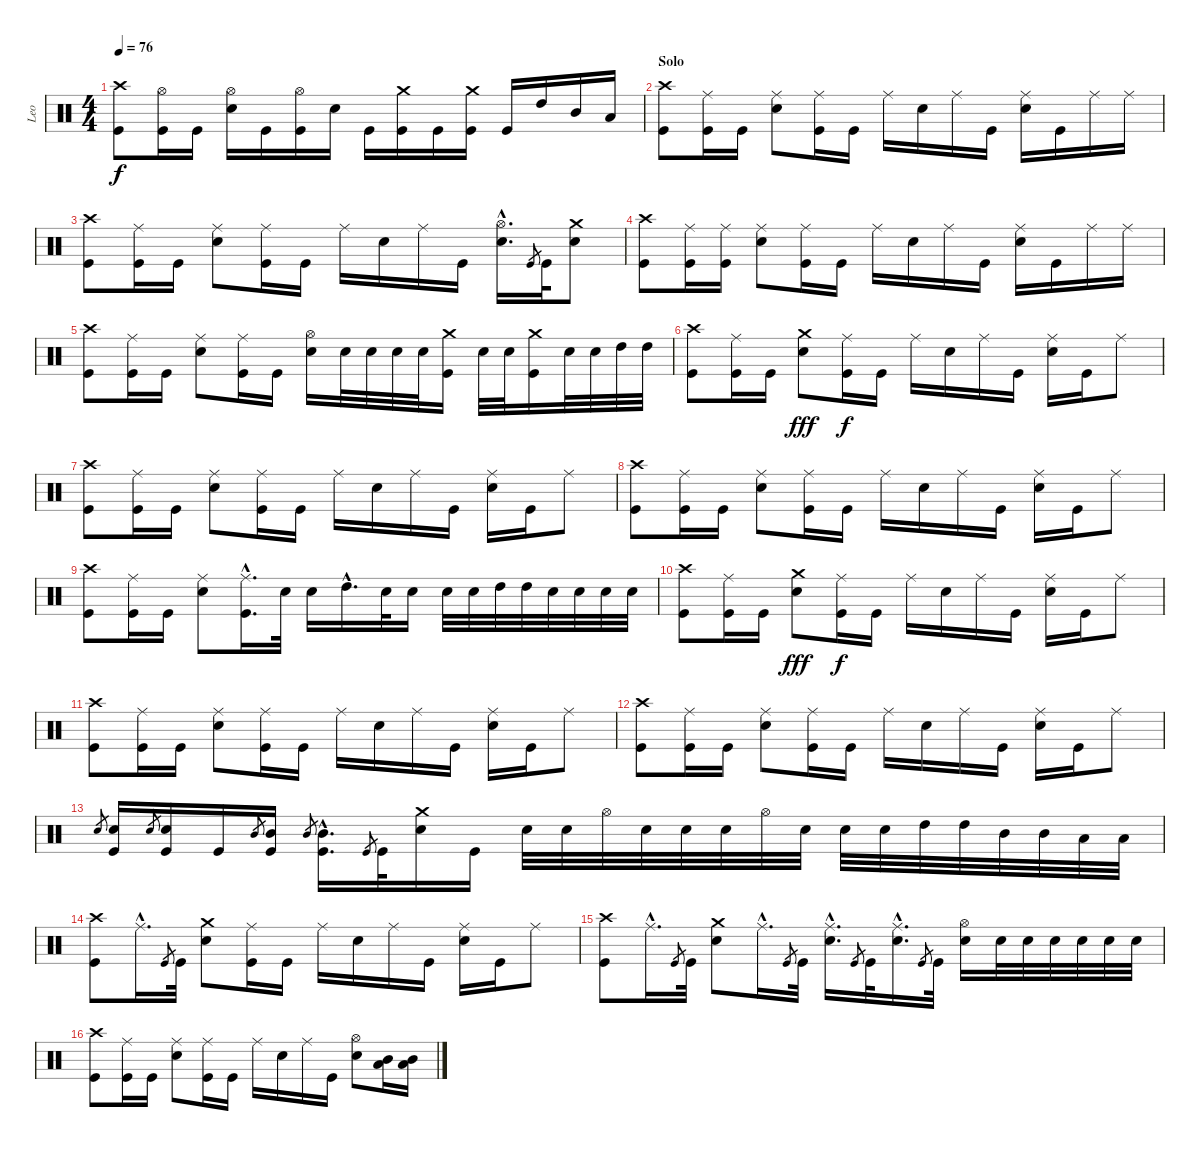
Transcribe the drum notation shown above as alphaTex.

\track ("Leo" "Leo") {instrument percussion}
\staff {score}
\articulation defaults
\ts (4 4)
\tempo 76
\clef neutral
\ks c
("Crash high (hit)" "Kick (hit)").8{dy f} ("Hi-Hat (open)" "Kick (hit)").16 "Kick (hit)".16 ("Hi-Hat (open)" "Electric Snare (hit)").16 "Kick (hit)".16 ("Hi-Hat (open)" "Kick (hit)").16 "Electric Snare (hit)".16 "Kick (hit)".16 ("Crash medium (hit)" "Kick (hit)").16 "Kick (hit)".16 ("Crash medium (hit)" "Kick (hit)").16 "Kick (hit)".16 "High Tom (hit)".16 "Mid Tom (hit)".16 "Low Tom (hit)".16 |
\section ("" "Solo")
("Crash high (hit)" "Kick (hit)").8 ("Ride (middle)" "Kick (hit)").16 "Kick (hit)".16 ("Ride (middle)" "Electric Snare (hit)").8 ("Ride (middle)" "Kick (hit)").16 "Kick (hit)".16 "Ride (middle)".16 "Electric Snare (hit)".16 "Ride (middle)".16 "Kick (hit)".16 ("Ride (middle)" "Electric Snare (hit)").16 "Kick (hit)".16 "Ride (middle)".16 "Ride (middle)".16 |
("Crash high (hit)" "Kick (hit)").8 ("Ride (middle)" "Kick (hit)").16 "Kick (hit)".16 ("Ride (middle)" "Electric Snare (hit)").8 ("Ride (middle)" "Kick (hit)").16 "Kick (hit)".16 "Ride (middle)".16 "Electric Snare (hit)".16 "Ride (middle)".16 "Kick (hit)".16 ("Hi-Hat (open)"{hac} "Electric Snare (hit)"{hac}).16{d} "Kick (hit)".8{gr} "Kick (hit)".32 ("Crash medium (hit)" "Electric Snare (hit)").8 |
("Crash high (hit)" "Kick (hit)").8 ("Ride (middle)" "Kick (hit)").16 ("Ride (middle)" "Kick (hit)").16 ("Ride (middle)" "Electric Snare (hit)").8 ("Ride (middle)" "Kick (hit)").16 "Kick (hit)".16 "Ride (middle)".16 "Electric Snare (hit)".16 "Ride (middle)".16 "Kick (hit)".16 ("Ride (middle)" "Electric Snare (hit)").16 "Kick (hit)".16 "Ride (middle)".16 "Ride (middle)".16 |
("Crash high (hit)" "Kick (hit)").8 ("Ride (middle)" "Kick (hit)").16 "Kick (hit)".16 ("Ride (middle)" "Electric Snare (hit)").8 ("Ride (middle)" "Kick (hit)").16 "Kick (hit)".16 ("Hi-Hat (open)" "Electric Snare (hit)").16 "Electric Snare (hit)".32 "Electric Snare (hit)".32 "Electric Snare (hit)".32 "Electric Snare (hit)".32 ("Crash medium (hit)" "Kick (hit)").16 "Electric Snare (hit)".32 "Electric Snare (hit)".32 ("Crash medium (hit)" "Kick (hit)").16 "Electric Snare (hit)".32 "Electric Snare (hit)".32 "High Tom (hit)".32 "High Tom (hit)".32 |
("Crash high (hit)" "Kick (hit)").8 ("Ride (middle)" "Kick (hit)").16 "Kick (hit)".16 ("Crash medium (hit)" "Electric Snare (hit)").8{dy fff} ("Ride (middle)" "Kick (hit)").16{dy f} "Kick (hit)".16 "Ride (middle)".16 "Electric Snare (hit)".16 "Ride (middle)".16 "Kick (hit)".16 ("Ride (middle)" "Electric Snare (hit)").16 "Kick (hit)".16 "Ride (middle)".8 |
("Crash high (hit)" "Kick (hit)").8 ("Ride (middle)" "Kick (hit)").16 "Kick (hit)".16 ("Ride (middle)" "Electric Snare (hit)").8 ("Ride (middle)" "Kick (hit)").16 "Kick (hit)".16 "Ride (middle)".16 "Electric Snare (hit)".16 "Ride (middle)".16 "Kick (hit)".16 ("Ride (middle)" "Electric Snare (hit)").16 "Kick (hit)".16 "Ride (middle)".8 |
("Crash high (hit)" "Kick (hit)").8 ("Ride (middle)" "Kick (hit)").16 "Kick (hit)".16 ("Ride (middle)" "Electric Snare (hit)").8 ("Ride (middle)" "Kick (hit)").16 "Kick (hit)".16 "Ride (middle)".16 "Electric Snare (hit)".16 "Ride (middle)".16 "Kick (hit)".16 ("Ride (middle)" "Electric Snare (hit)").16 "Kick (hit)".16 "Ride (middle)".8 |
("Crash high (hit)" "Kick (hit)").8 ("Ride (middle)" "Kick (hit)").16 "Kick (hit)".16 ("Ride (middle)" "Electric Snare (hit)").8 ("Ride (middle)"{hac} "Kick (hit)"{hac}).16{d} "Electric Snare (hit)".32 "Electric Snare (hit)".16 "High Tom (hit)"{hac}.16{d} "Electric Snare (hit)".32 "Electric Snare (hit)".16 "Electric Snare (hit)".32 "Electric Snare (hit)".32 "High Tom (hit)".32 "High Tom (hit)".32 "Electric Snare (hit)".32 "Electric Snare (hit)".32 "Electric Snare (hit)".32 "Electric Snare (hit)".32 |
("Crash high (hit)" "Kick (hit)").8 ("Ride (middle)" "Kick (hit)").16 "Kick (hit)".16 ("Crash medium (hit)" "Electric Snare (hit)").8{dy fff} ("Ride (middle)" "Kick (hit)").16{dy f} "Kick (hit)".16 "Ride (middle)".16 "Electric Snare (hit)".16 "Ride (middle)".16 "Kick (hit)".16 ("Ride (middle)" "Electric Snare (hit)").16 "Kick (hit)".16 "Ride (middle)".8 |
("Crash high (hit)" "Kick (hit)").8 ("Ride (middle)" "Kick (hit)").16 "Kick (hit)".16 ("Ride (middle)" "Electric Snare (hit)").8 ("Ride (middle)" "Kick (hit)").16 "Kick (hit)".16 "Ride (middle)".16 "Electric Snare (hit)".16 "Ride (middle)".16 "Kick (hit)".16 ("Ride (middle)" "Electric Snare (hit)").16 "Kick (hit)".16 "Ride (middle)".8 |
("Crash high (hit)" "Kick (hit)").8 ("Ride (middle)" "Kick (hit)").16 "Kick (hit)".16 ("Ride (middle)" "Electric Snare (hit)").8 ("Ride (middle)" "Kick (hit)").16 "Kick (hit)".16 "Ride (middle)".16 "Electric Snare (hit)".16 "Ride (middle)".16 "Kick (hit)".16 ("Ride (middle)" "Electric Snare (hit)").16 "Kick (hit)".16 "Ride (middle)".8 |
"Electric Snare (hit)".8{gr} ("Electric Snare (hit)" "Kick (hit)").16 "Electric Snare (hit)".8{gr} ("Electric Snare (hit)" "Kick (hit)").16 "Kick (hit)".16 "Mid Tom (hit)".8{gr} ("Mid Tom (hit)" "Kick (hit)").16 "Mid Tom (hit)".8{gr} ("Mid Tom (hit)"{hac} "Kick (hit)"{hac}).16{d} "Kick (hit)".8{gr} "Kick (hit)".32 ("Crash medium (hit)" "Electric Snare (hit)").16 "Kick (hit)".16 "Electric Snare (hit)".32 "Electric Snare (hit)".32 "Hi-Hat (open)".32 "Electric Snare (hit)".32 "Electric Snare (hit)".32 "Electric Snare (hit)".32 "Hi-Hat (open)".32 "Electric Snare (hit)".32 "Electric Snare (hit)".32 "Electric Snare (hit)".32 "High Tom (hit)".32 "High Tom (hit)".32 "Mid Tom (hit)".32 "Mid Tom (hit)".32 "Low Tom (hit)".32 "Low Tom (hit)".32 |
("Crash high (hit)" "Kick (hit)").8 "Ride (middle)"{hac}.16{d} "Kick (hit)".8{gr} "Kick (hit)".32 ("Crash medium (hit)" "Electric Snare (hit)").8 ("Ride (middle)" "Kick (hit)").16 "Kick (hit)".16 "Ride (middle)".16 "Electric Snare (hit)".16 "Ride (middle)".16 "Kick (hit)".16 ("Ride (middle)" "Electric Snare (hit)").16 "Kick (hit)".16 "Ride (middle)".8 |
("Crash high (hit)" "Kick (hit)").8 "Ride (middle)"{hac}.16{d} "Kick (hit)".8{gr} "Kick (hit)".32 ("Crash medium (hit)" "Electric Snare (hit)").8 "Ride (middle)"{hac}.16{d} "Kick (hit)".8{gr} "Kick (hit)".32 ("Ride (middle)"{hac} "Electric Snare (hit)"{hac}).16{d} "Kick (hit)".8{gr} "Kick (hit)".32 ("Ride (middle)"{hac} "Electric Snare (hit)"{hac}).16{d} "Kick (hit)".8{gr} "Kick (hit)".32 ("Hi-Hat (open)" "Electric Snare (hit)").16 "Electric Snare (hit)".32 "Electric Snare (hit)".32 "Electric Snare (hit)".32 "Electric Snare (hit)".32 "Electric Snare (hit)".32 "Electric Snare (hit)".32 |
("Crash high (hit)" "Kick (hit)").8 ("Ride (middle)" "Kick (hit)").16 "Kick (hit)".16 ("Ride (middle)" "Electric Snare (hit)").8 ("Ride (middle)" "Kick (hit)").16 "Kick (hit)".16 "Ride (middle)".16 "Electric Snare (hit)".16 "Ride (middle)".16 "Kick (hit)".16 ("Hi-Hat (open)" "Electric Snare (hit)").8 ("Mid Tom (hit)" "Low Tom (hit)").16 ("Mid Tom (hit)" "Low Tom (hit)").16
